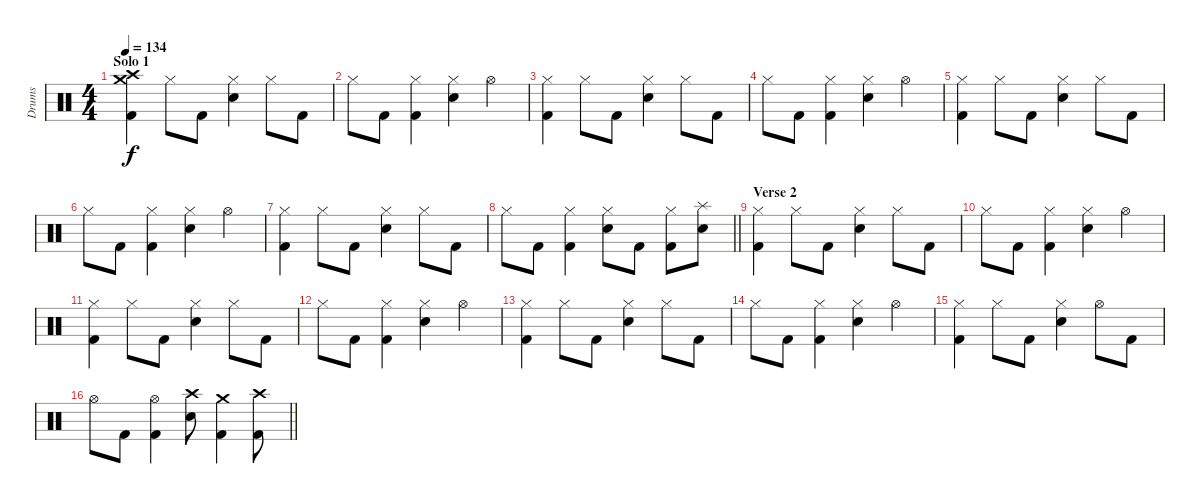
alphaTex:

\track ("Drums" "Drums") {instrument percussion}
\staff {score}
\articulation defaults
\ts (4 4)
\section ("" "Solo 1")
\tempo 134
\clef neutral
\ks c
("Crash high (hit)" "Crash medium (hit)" "Kick (hit) 2").4{dy f} "Hi-Hat (closed)".8 "Kick (hit) 2".8 ("Hi-Hat (closed)" "Snare (hit) 2").4 "Hi-Hat (closed)".8 "Kick (hit) 2".8 |
"Hi-Hat (closed)".8 "Kick (hit) 2".8 ("Hi-Hat (closed)" "Kick (hit) 2").4 ("Hi-Hat (closed)" "Snare (hit) 2").4 "Hi-Hat (open)".4 |
("Hi-Hat (closed)" "Kick (hit) 2").4 "Hi-Hat (closed)".8 "Kick (hit) 2".8 ("Hi-Hat (closed)" "Snare (hit) 2").4 "Hi-Hat (closed)".8 "Kick (hit) 2".8 |
"Hi-Hat (closed)".8 "Kick (hit) 2".8 ("Hi-Hat (closed)" "Kick (hit) 2").4 ("Hi-Hat (closed)" "Snare (hit) 2").4 "Hi-Hat (open)".4 |
("Hi-Hat (closed)" "Kick (hit) 2").4 "Hi-Hat (closed)".8 "Kick (hit) 2".8 ("Hi-Hat (closed)" "Snare (hit) 2").4 "Hi-Hat (closed)".8 "Kick (hit) 2".8 |
"Hi-Hat (closed)".8 "Kick (hit) 2".8 ("Hi-Hat (closed)" "Kick (hit) 2").4 ("Hi-Hat (closed)" "Snare (hit) 2").4 "Hi-Hat (open)".4 |
("Hi-Hat (closed)" "Kick (hit) 2").4 "Hi-Hat (closed)".8 "Kick (hit) 2".8 ("Hi-Hat (closed)" "Snare (hit) 2").4 "Hi-Hat (closed)".8 "Kick (hit) 2".8 |
\barLineRight lightlight "Hi-Hat (closed)".8 "Kick (hit) 2".8
("Hi-Hat (closed)" "Kick (hit) 2").4 ("Hi-Hat (closed)" "Snare (hit) 2").8 "Kick (hit) 2".8 ("Hi-Hat (closed)" "Kick (hit) 2").8 ("Splash (hit)" "Snare (hit) 2").8 |
\section ("" "Verse 2")
("Hi-Hat (closed)" "Kick (hit) 2").4 "Hi-Hat (closed)".8 "Kick (hit) 2".8 ("Hi-Hat (closed)" "Snare (hit) 2").4 "Hi-Hat (closed)".8 "Kick (hit) 2".8 |
"Hi-Hat (closed)".8 "Kick (hit) 2".8 ("Hi-Hat (closed)" "Kick (hit) 2").4 ("Hi-Hat (closed)" "Snare (hit) 2").4 "Hi-Hat (open)".4 |
("Hi-Hat (closed)" "Kick (hit) 2").4 "Hi-Hat (closed)".8 "Kick (hit) 2".8 ("Hi-Hat (closed)" "Snare (hit) 2").4 "Hi-Hat (closed)".8 "Kick (hit) 2".8 |
"Hi-Hat (closed)".8 "Kick (hit) 2".8 ("Hi-Hat (closed)" "Kick (hit) 2").4 ("Hi-Hat (closed)" "Snare (hit) 2").4 "Hi-Hat (open)".4 |
("Hi-Hat (closed)" "Kick (hit) 2").4 "Hi-Hat (closed)".8 "Kick (hit) 2".8 ("Hi-Hat (closed)" "Snare (hit) 2").4 "Hi-Hat (closed)".8 "Kick (hit) 2".8 |
"Hi-Hat (closed)".8 "Kick (hit) 2".8 ("Hi-Hat (closed)" "Kick (hit) 2").4 ("Hi-Hat (closed)" "Snare (hit) 2").4 "Hi-Hat (open)".4 |
("Hi-Hat (closed)" "Kick (hit) 2").4 "Hi-Hat (closed)".8 "Kick (hit) 2".8 ("Hi-Hat (closed)" "Snare (hit) 2").4 "Hi-Hat (open)".8 "Kick (hit) 2".8 |
\barLineRight lightlight "Hi-Hat (open)".8 "Kick (hit) 2".8
("Hi-Hat (open)" "Kick (hit) 2").4 ("Crash high (hit)" "Snare (hit) 2").8 ("Crash medium (hit)" "Kick (hit) 2").4 ("Crash high (hit)" "Kick (hit) 2").8
